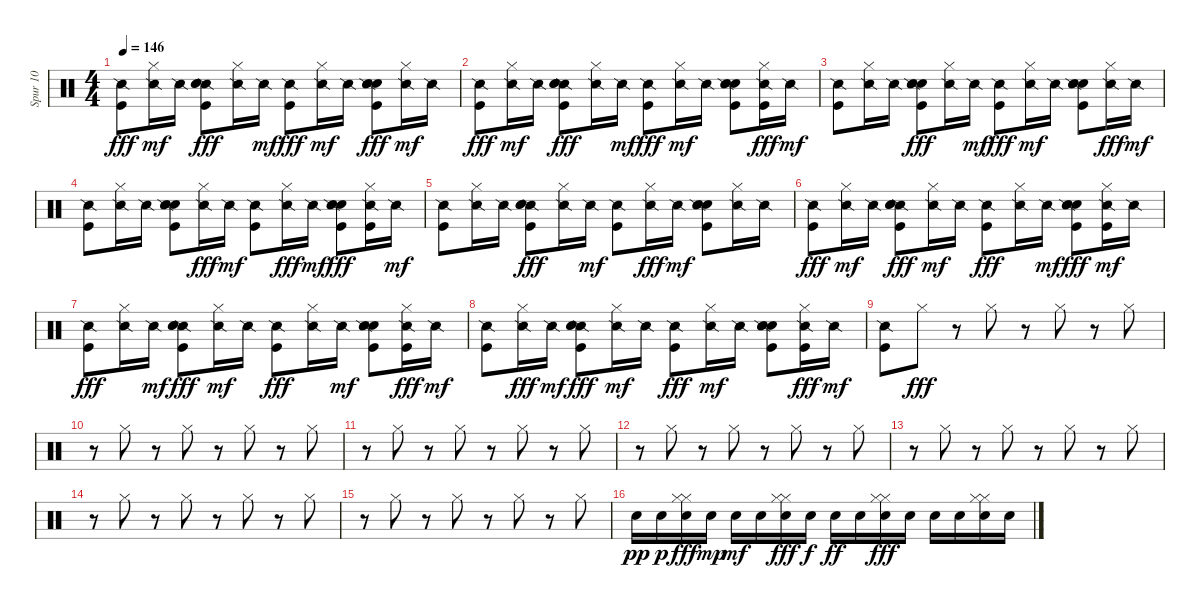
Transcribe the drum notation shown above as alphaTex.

\track ("Spur 10" "Spur 10") {instrument percussion}
\staff {score}
\articulation defaults
\ts (4 4)
\tempo 146
\clef neutral
\ks c
("Snare (side stick) 2" "Kick (hit)").8{dy fff} ("Hi-Hat (closed)" "Snare (side stick) 2").16{dy mf} "Snare (side stick) 2".16 ("Snare (side stick) 2" "Kick (hit)" "Electric Snare (hit)" "Hand Clap (hit)").8{dy fff} ("Snare (side stick) 2" "Hi-Hat (closed)").16 "Snare (side stick) 2".16{dy mf} ("Snare (side stick) 2" "Kick (hit)").8{dy fff} ("Hi-Hat (closed)" "Snare (side stick) 2").16{dy mf} "Snare (side stick) 2".16 ("Hand Clap (hit)" "Snare (side stick) 2" "Kick (hit)" "Electric Snare (hit)").8{dy fff} ("Hi-Hat (closed)" "Snare (side stick) 2").16{dy mf} "Snare (side stick) 2".16 |
("Snare (side stick) 2" "Kick (hit)").8{dy fff} ("Hi-Hat (closed)" "Snare (side stick) 2").16{dy mf} "Snare (side stick) 2".16 ("Snare (side stick) 2" "Hand Clap (hit)" "Electric Snare (hit)" "Kick (hit)").8{dy fff} ("Snare (side stick) 2" "Hi-Hat (closed)").16 "Snare (side stick) 2".16{dy mf} ("Snare (side stick) 2" "Kick (hit)").8{dy fff} ("Hi-Hat (closed)" "Snare (side stick) 2").16{dy mf} "Snare (side stick) 2".16 ("Kick (hit)" "Hand Clap (hit)" "Electric Snare (hit)" "Snare (side stick) 2").8 ("Snare (side stick) 2" "Hi-Hat (closed)" "Kick (hit)").16{dy fff} "Snare (side stick) 2".16{dy mf} |
("Kick (hit)" "Snare (side stick) 2").8 ("Hi-Hat (closed)" "Snare (side stick) 2").16 "Snare (side stick) 2".16 ("Electric Snare (hit)" "Snare (side stick) 2" "Hand Clap (hit)" "Kick (hit)").8{dy fff} ("Snare (side stick) 2" "Hi-Hat (closed)").16 "Snare (side stick) 2".16{dy mf} ("Snare (side stick) 2" "Kick (hit)").8{dy fff} ("Hi-Hat (closed)" "Snare (side stick) 2").16{dy mf} "Snare (side stick) 2".16 ("Kick (hit)" "Electric Snare (hit)" "Hand Clap (hit)" "Snare (side stick) 2").8 ("Snare (side stick) 2" "Hi-Hat (closed)").16{dy fff} "Snare (side stick) 2".16{dy mf} |
("Kick (hit)" "Snare (side stick) 2").8 ("Hi-Hat (closed)" "Snare (side stick) 2").16 "Snare (side stick) 2".16 ("Kick (hit)" "Hand Clap (hit)" "Electric Snare (hit)" "Snare (side stick) 2").8 ("Snare (side stick) 2" "Hi-Hat (closed)").16{dy fff} "Snare (side stick) 2".16{dy mf} ("Kick (hit)" "Snare (side stick) 2").8 ("Snare (side stick) 2" "Hi-Hat (closed)").16{dy fff} "Snare (side stick) 2".16{dy mf} ("Hand Clap (hit)" "Snare (side stick) 2" "Electric Snare (hit)" "Kick (hit)").8{dy fff} ("Kick (hit)" "Snare (side stick) 2" "Hi-Hat (closed)").16 "Snare (side stick) 2".16{dy mf} |
("Kick (hit)" "Snare (side stick) 2").8 ("Hi-Hat (closed)" "Snare (side stick) 2").16 "Snare (side stick) 2".16 ("Snare (side stick) 2" "Hand Clap (hit)" "Electric Snare (hit)" "Kick (hit)").8{dy fff} ("Snare (side stick) 2" "Hi-Hat (closed)").16 "Snare (side stick) 2".16{dy mf} ("Kick (hit)" "Snare (side stick) 2").8 ("Snare (side stick) 2" "Hi-Hat (closed)").16{dy fff} "Snare (side stick) 2".16{dy mf} ("Hand Clap (hit)" "Kick (hit)" "Snare (side stick) 2" "Electric Snare (hit)").8 ("Hi-Hat (closed)" "Snare (side stick) 2").16 "Snare (side stick) 2".16 |
("Snare (side stick) 2" "Kick (hit)").8{dy fff} ("Hi-Hat (closed)" "Snare (side stick) 2").16{dy mf} "Snare (side stick) 2".16 ("Snare (side stick) 2" "Kick (hit)" "Hand Clap (hit)" "Electric Snare (hit)").8{dy fff} ("Hi-Hat (closed)" "Snare (side stick) 2").16{dy mf} "Snare (side stick) 2".16 ("Snare (side stick) 2" "Kick (hit)").8{dy fff} ("Snare (side stick) 2" "Hi-Hat (closed)").16 "Snare (side stick) 2".16{dy mf} ("Hand Clap (hit)" "Snare (side stick) 2" "Kick (hit)" "Electric Snare (hit)").8{dy fff} ("Kick (hit)" "Hi-Hat (closed)" "Snare (side stick) 2").16{dy mf} "Snare (side stick) 2".16 |
("Snare (side stick) 2" "Kick (hit)").8{dy fff} ("Snare (side stick) 2" "Hi-Hat (closed)").16 "Snare (side stick) 2".16{dy mf} ("Kick (hit)" "Snare (side stick) 2" "Electric Snare (hit)" "Hand Clap (hit)").8{dy fff} ("Hi-Hat (closed)" "Snare (side stick) 2").16{dy mf} "Snare (side stick) 2".16 ("Snare (side stick) 2" "Kick (hit)").8{dy fff} ("Snare (side stick) 2" "Hi-Hat (closed)").16 "Snare (side stick) 2".16{dy mf} ("Electric Snare (hit)" "Kick (hit)" "Hand Clap (hit)" "Snare (side stick) 2").8 ("Hi-Hat (closed)" "Snare (side stick) 2" "Kick (hit)").16{dy fff} "Snare (side stick) 2".16{dy mf} |
("Kick (hit)" "Snare (side stick) 2").8 ("Snare (side stick) 2" "Hi-Hat (closed)").16{dy fff} "Snare (side stick) 2".16{dy mf} ("Snare (side stick) 2" "Kick (hit)" "Electric Snare (hit)" "Hand Clap (hit)").8{dy fff} ("Hi-Hat (closed)" "Snare (side stick) 2").16{dy mf} "Snare (side stick) 2".16 ("Snare (side stick) 2" "Kick (hit)").8{dy fff} ("Hi-Hat (closed)" "Snare (side stick) 2").16{dy mf} "Snare (side stick) 2".16 ("Kick (hit)" "Electric Snare (hit)" "Hand Clap (hit)" "Snare (side stick) 2").8 ("Snare (side stick) 2" "Hi-Hat (closed)" "Kick (hit)").16{dy fff} "Snare (side stick) 2".16{dy mf} |
("Kick (hit)" "Snare (side stick) 2").8 "Hi-Hat (closed)".8{dy fff} r.8 "Hi-Hat (closed)".8 r.8 "Hi-Hat (closed)".8 r.8 "Hi-Hat (closed)".8 |
r.8 "Hi-Hat (closed)".8 r.8 "Hi-Hat (closed)".8 r.8 "Hi-Hat (closed)".8 r.8 "Hi-Hat (closed)".8 |
r.8 "Hi-Hat (closed)".8 r.8 "Hi-Hat (closed)".8 r.8 "Hi-Hat (closed)".8 r.8 "Hi-Hat (closed)".8 |
r.8 "Hi-Hat (closed)".8 r.8 "Hi-Hat (closed)".8 r.8 "Hi-Hat (closed)".8 r.8 "Hi-Hat (closed)".8 |
r.8 "Hi-Hat (closed)".8 r.8 "Hi-Hat (closed)".8 r.8 "Hi-Hat (closed)".8 r.8 "Hi-Hat (closed)".8 |
r.8 "Hi-Hat (closed)".8 r.8 "Hi-Hat (closed)".8 r.8 "Hi-Hat (closed)".8 r.8 "Hi-Hat (closed)".8 |
r.8 "Hi-Hat (closed)".8 r.8 "Hi-Hat (closed)".8 r.8 "Hi-Hat (closed)".8 r.8 "Hi-Hat (closed)".8 |
"Snare (hit) 2".16{dy pp} "Snare (hit) 2".16{dy p} ("Snare (hit) 2" "Hi-Hat (closed)" "Hi-Hat (closed)").16{dy fff} "Snare (hit) 2".16{dy mp} "Snare (hit) 2".16{dy mf} "Snare (hit) 2".16 ("Hi-Hat (closed)" "Snare (hit) 2" "Hi-Hat (closed)").16{dy fff} "Snare (hit) 2".16{dy f} "Snare (hit) 2".16{dy ff} "Snare (hit) 2".16 ("Hi-Hat (closed)" "Snare (hit) 2" "Hi-Hat (closed)").16{dy fff} "Snare (hit) 2".16 "Snare (hit) 2".16 "Snare (hit) 2".16 ("Snare (hit) 2" "Hi-Hat (closed)" "Hi-Hat (closed)").16 "Snare (hit) 2".16
